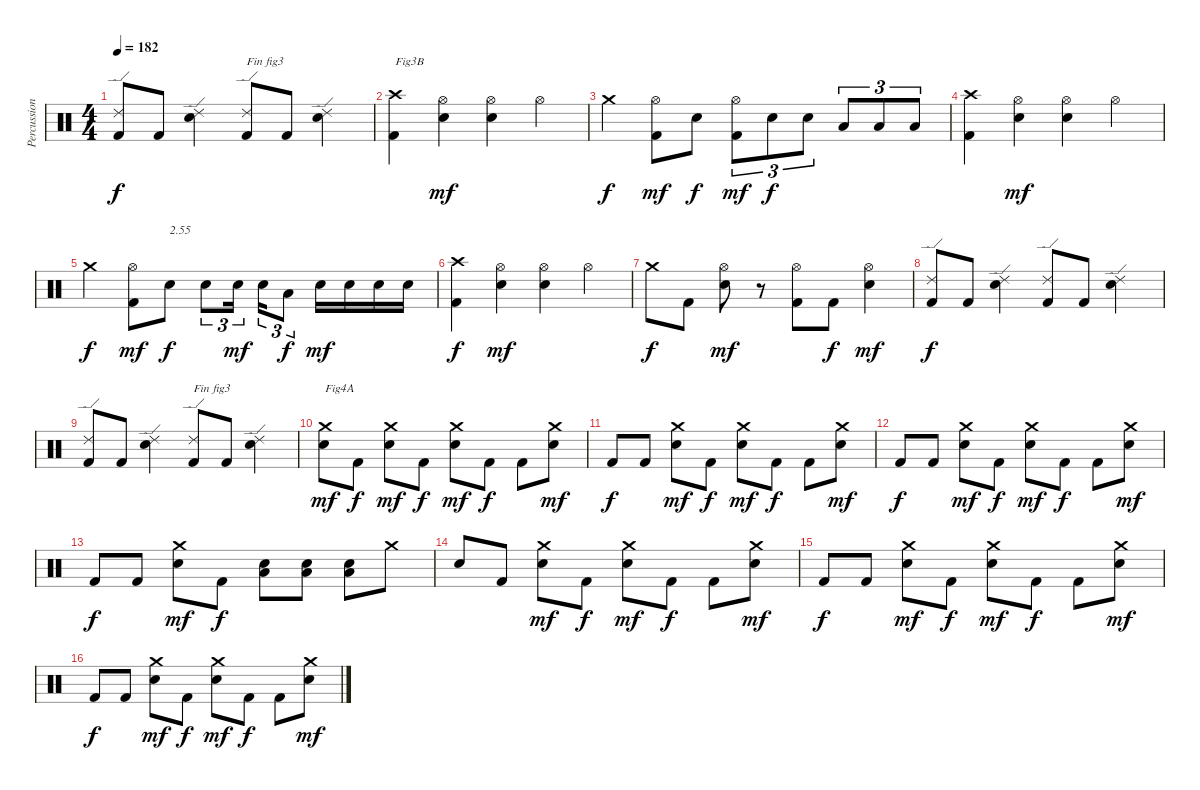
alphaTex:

\track ("Percussions" "Percussion") {instrument percussion}
\staff {score}
\articulation defaults
\ts (4 4)
\tempo 182
\clef neutral
\ks c
("Kick (hit) 2" "Ride (edge) 2").8{dy f} "Kick (hit) 2".8 ("Electric Snare (hit)" "Ride (edge) 2").4 ("Kick (hit) 2" "Ride (edge) 2").8{txt "Fin fig3"} "Kick (hit) 2".8 ("Electric Snare (hit)" "Ride (edge) 2").4 |
("Kick (hit) 2" "Crash high (hit)").4{txt "Fig3B"} ("Electric Snare (hit)" "Hi-Hat (open)").4{dy mf} ("Electric Snare (hit)" "Hi-Hat (open)").4 "Hi-Hat (open)".4 |
"Crash medium (hit)".4{dy f} ("Kick (hit) 2" "Hi-Hat (open)").8{dy mf} "Electric Snare (hit)".8{dy f} ("Kick (hit) 2" "Hi-Hat (open)").8{tu (3 2) dy mf} "Electric Snare (hit)".8{tu (3 2) dy f} "Electric Snare (hit)".8{tu (3 2)} "Low Floor Tom (hit)".8{tu (3 2)} "Low Floor Tom (hit)".8{tu (3 2)} "Low Floor Tom (hit)".8{tu (3 2)} |
("Kick (hit) 2" "Crash high (hit)").4 ("Electric Snare (hit)" "Hi-Hat (open)").4{dy mf} ("Electric Snare (hit)" "Hi-Hat (open)").4 "Hi-Hat (open)".4 |
"Crash medium (hit)".4{dy f} ("Kick (hit) 2" "Hi-Hat (open)").8{dy mf} "Electric Snare (hit)".8{txt "2.55" dy f} "Electric Snare (hit)".8{tu (3 2)} "Electric Snare (hit)".16{tu (3 2) dy mf} "Electric Snare (hit)".16{tu (3 2)} "Low Floor Tom (hit)".8{tu (3 2) dy f} "Electric Snare (hit)".16{dy mf} "Electric Snare (hit)".16 "Electric Snare (hit)".16 "Electric Snare (hit)".16 |
("Kick (hit) 2" "Crash high (hit)").4{dy f} ("Electric Snare (hit)" "Hi-Hat (open)").4{dy mf} ("Electric Snare (hit)" "Hi-Hat (open)").4 "Hi-Hat (open)".4 |
"Crash medium (hit)".8{dy f} "Kick (hit) 2".8 ("Electric Snare (hit)" "Hi-Hat (open)").8{dy mf} r.8 ("Kick (hit) 2" "Hi-Hat (open)").8 "Kick (hit) 2".8{dy f} ("Electric Snare (hit)" "Hi-Hat (open)").4{dy mf} |
("Kick (hit) 2" "Ride (edge) 2").8{dy f} "Kick (hit) 2".8 ("Electric Snare (hit)" "Ride (edge) 2").4 ("Kick (hit) 2" "Ride (edge) 2").8 "Kick (hit) 2".8 ("Electric Snare (hit)" "Ride (edge) 2").4 |
("Kick (hit) 2" "Ride (edge) 2").8 "Kick (hit) 2".8 ("Electric Snare (hit)" "Ride (edge) 2").4 ("Kick (hit) 2" "Ride (edge) 2").8{txt "Fin fig3"} "Kick (hit) 2".8 ("Electric Snare (hit)" "Ride (edge) 2").4 |
("Electric Snare (hit)" "Crash medium (hit)").8{txt "Fig4A" dy mf} "Kick (hit) 2".8{dy f} ("Electric Snare (hit)" "Crash medium (hit)").8{dy mf} "Kick (hit) 2".8{dy f} ("Electric Snare (hit)" "Crash medium (hit)").8{dy mf} "Kick (hit) 2".8{dy f} "Kick (hit) 2".8 ("Electric Snare (hit)" "Crash medium (hit)").8{dy mf} |
"Kick (hit) 2".8{dy f} "Kick (hit) 2".8 ("Electric Snare (hit)" "Crash medium (hit)").8{dy mf} "Kick (hit) 2".8{dy f} ("Electric Snare (hit)" "Crash medium (hit)").8{dy mf} "Kick (hit) 2".8{dy f} "Kick (hit) 2".8 ("Electric Snare (hit)" "Crash medium (hit)").8{dy mf} |
"Kick (hit) 2".8{dy f} "Kick (hit) 2".8 ("Electric Snare (hit)" "Crash medium (hit)").8{dy mf} "Kick (hit) 2".8{dy f} ("Electric Snare (hit)" "Crash medium (hit)").8{dy mf} "Kick (hit) 2".8{dy f} "Kick (hit) 2".8 ("Electric Snare (hit)" "Crash medium (hit)").8{dy mf} |
"Kick (hit) 2".8{dy f} "Kick (hit) 2".8 ("Electric Snare (hit)" "Crash medium (hit)").8{dy mf} "Kick (hit) 2".8{dy f} ("Low Floor Tom (hit)" "Electric Snare (hit)").8 ("Low Floor Tom (hit)" "Electric Snare (hit)").8 ("Low Floor Tom (hit)" "Electric Snare (hit)").8 "Crash medium (hit)".8 |
"Electric Snare (hit)".8 "Kick (hit) 2".8 ("Electric Snare (hit)" "Crash medium (hit)").8{dy mf} "Kick (hit) 2".8{dy f} ("Electric Snare (hit)" "Crash medium (hit)").8{dy mf} "Kick (hit) 2".8{dy f} "Kick (hit) 2".8 ("Electric Snare (hit)" "Crash medium (hit)").8{dy mf} |
"Kick (hit) 2".8{dy f} "Kick (hit) 2".8 ("Electric Snare (hit)" "Crash medium (hit)").8{dy mf} "Kick (hit) 2".8{dy f} ("Electric Snare (hit)" "Crash medium (hit)").8{dy mf} "Kick (hit) 2".8{dy f} "Kick (hit) 2".8 ("Electric Snare (hit)" "Crash medium (hit)").8{dy mf} |
"Kick (hit) 2".8{dy f} "Kick (hit) 2".8 ("Electric Snare (hit)" "Crash medium (hit)").8{dy mf} "Kick (hit) 2".8{dy f} ("Electric Snare (hit)" "Crash medium (hit)").8{dy mf} "Kick (hit) 2".8{dy f} "Kick (hit) 2".8 ("Electric Snare (hit)" "Crash medium (hit)").8{dy mf}
